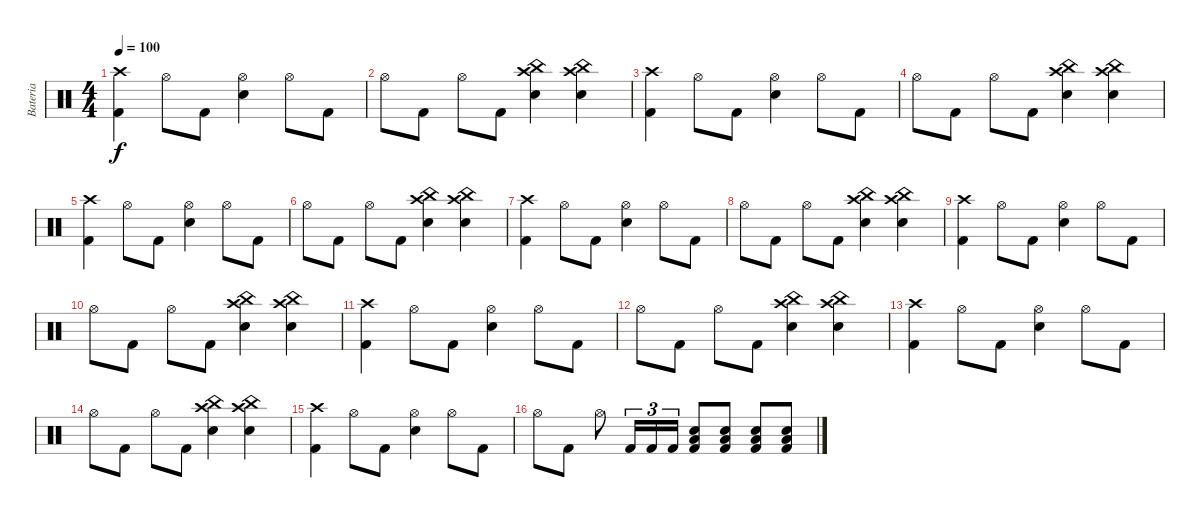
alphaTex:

\track ("Bateria" "Bateria") {instrument percussion}
\staff {score}
\articulation defaults
\ts (4 4)
\tempo 100
\clef neutral
\ks c
("Crash high (hit)" "Kick (hit) 2").4{dy f} "Hi-Hat (open)".8 "Kick (hit) 2".8 ("Hi-Hat (open)" "Electric Snare (hit)").4 "Hi-Hat (open)".8 "Kick (hit) 2".8 |
"Hi-Hat (open)".8 "Kick (hit) 2".8 "Hi-Hat (open)".8 "Kick (hit) 2".8 ("Crash high (hit)" "China (hit)" "Electric Snare (hit)").4 ("Crash high (hit)" "China (hit)" "Electric Snare (hit)").4 |
("Crash high (hit)" "Kick (hit) 2").4 "Hi-Hat (open)".8 "Kick (hit) 2".8 ("Hi-Hat (open)" "Electric Snare (hit)").4 "Hi-Hat (open)".8 "Kick (hit) 2".8 |
"Hi-Hat (open)".8 "Kick (hit) 2".8 "Hi-Hat (open)".8 "Kick (hit) 2".8 ("Crash high (hit)" "China (hit)" "Electric Snare (hit)").4 ("Crash high (hit)" "China (hit)" "Electric Snare (hit)").4 |
("Crash high (hit)" "Kick (hit) 2").4 "Hi-Hat (open)".8 "Kick (hit) 2".8 ("Hi-Hat (open)" "Electric Snare (hit)").4 "Hi-Hat (open)".8 "Kick (hit) 2".8 |
"Hi-Hat (open)".8 "Kick (hit) 2".8 "Hi-Hat (open)".8 "Kick (hit) 2".8 ("Crash high (hit)" "China (hit)" "Electric Snare (hit)").4 ("Crash high (hit)" "China (hit)" "Electric Snare (hit)").4 |
("Crash high (hit)" "Kick (hit) 2").4 "Hi-Hat (open)".8 "Kick (hit) 2".8 ("Hi-Hat (open)" "Electric Snare (hit)").4 "Hi-Hat (open)".8 "Kick (hit) 2".8 |
"Hi-Hat (open)".8 "Kick (hit) 2".8 "Hi-Hat (open)".8 "Kick (hit) 2".8 ("Crash high (hit)" "China (hit)" "Electric Snare (hit)").4 ("Crash high (hit)" "China (hit)" "Electric Snare (hit)").4 |
("Crash high (hit)" "Kick (hit) 2").4 "Hi-Hat (open)".8 "Kick (hit) 2".8 ("Hi-Hat (open)" "Electric Snare (hit)").4 "Hi-Hat (open)".8 "Kick (hit) 2".8 |
"Hi-Hat (open)".8 "Kick (hit) 2".8 "Hi-Hat (open)".8 "Kick (hit) 2".8 ("Crash high (hit)" "China (hit)" "Electric Snare (hit)").4 ("Crash high (hit)" "China (hit)" "Electric Snare (hit)").4 |
("Crash high (hit)" "Kick (hit) 2").4 "Hi-Hat (open)".8 "Kick (hit) 2".8 ("Hi-Hat (open)" "Electric Snare (hit)").4 "Hi-Hat (open)".8 "Kick (hit) 2".8 |
"Hi-Hat (open)".8 "Kick (hit) 2".8 "Hi-Hat (open)".8 "Kick (hit) 2".8 ("Crash high (hit)" "China (hit)" "Electric Snare (hit)").4 ("Crash high (hit)" "China (hit)" "Electric Snare (hit)").4 |
("Crash high (hit)" "Kick (hit) 2").4 "Hi-Hat (open)".8 "Kick (hit) 2".8 ("Hi-Hat (open)" "Electric Snare (hit)").4 "Hi-Hat (open)".8 "Kick (hit) 2".8 |
"Hi-Hat (open)".8 "Kick (hit) 2".8 "Hi-Hat (open)".8 "Kick (hit) 2".8 ("Crash high (hit)" "China (hit)" "Electric Snare (hit)").4 ("Crash high (hit)" "China (hit)" "Electric Snare (hit)").4 |
("Crash high (hit)" "Kick (hit) 2").4 "Hi-Hat (open)".8 "Kick (hit) 2".8 ("Hi-Hat (open)" "Electric Snare (hit)").4 "Hi-Hat (open)".8 "Kick (hit) 2".8 |
"Hi-Hat (open)".8 "Kick (hit) 2".8 "Hi-Hat (open)".8 "Kick (hit) 2".16{tu (3 2)} "Kick (hit) 2".16{tu (3 2)} "Kick (hit) 2".16{tu (3 2)} ("Electric Snare (hit)" "Low Floor Tom (hit)" "Kick (hit) 2").8 ("Electric Snare (hit)" "Low Floor Tom (hit)" "Kick (hit) 2").8 ("Electric Snare (hit)" "Low Floor Tom (hit)" "Kick (hit) 2").8 ("Electric Snare (hit)" "Low Floor Tom (hit)" "Kick (hit) 2").8
